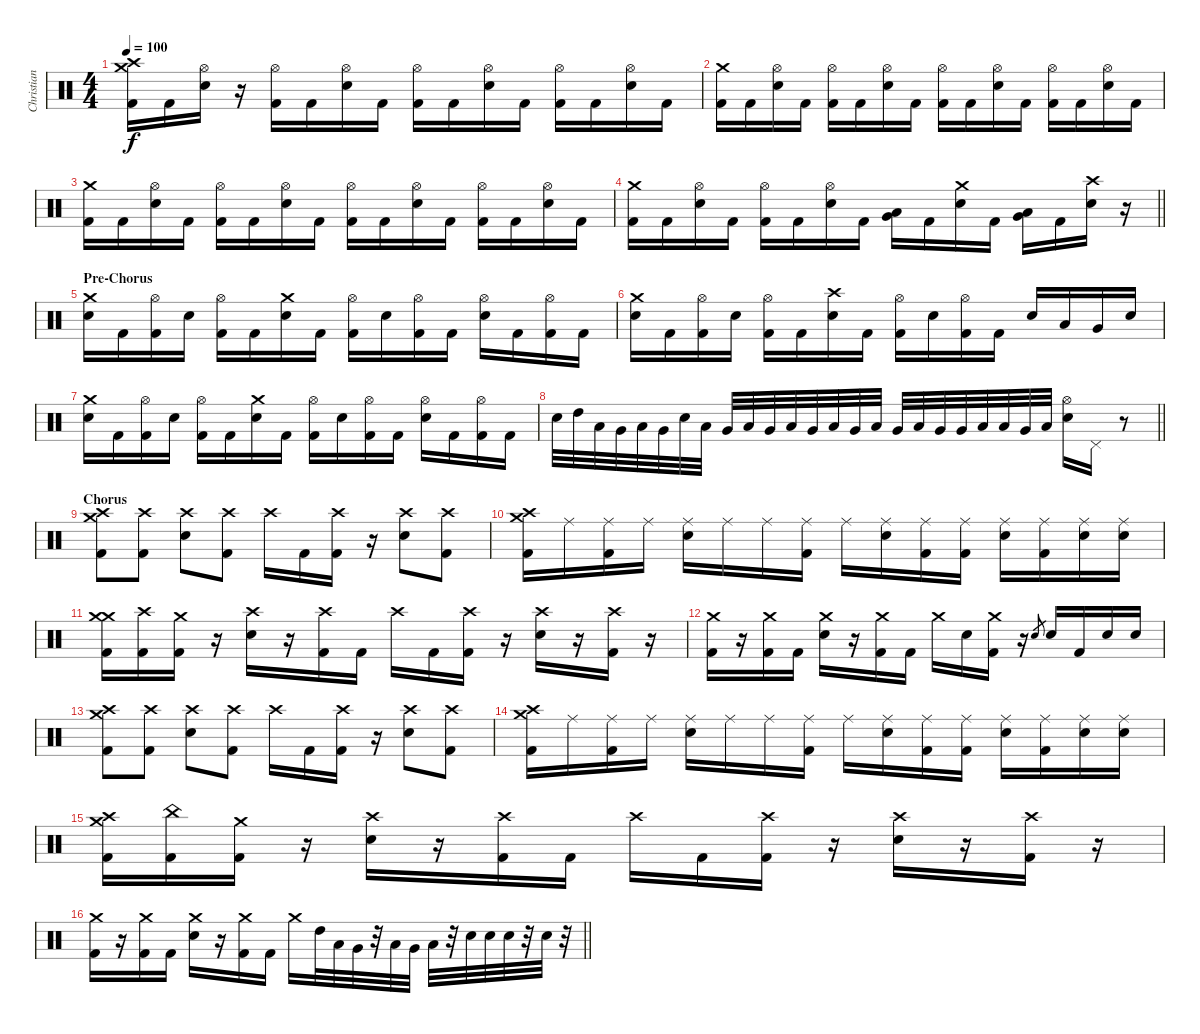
\track ("Christian 'CC' Coma" "Christian ") {instrument percussion}
\staff {score}
\articulation defaults
\ts (4 4)
\tempo 100
\clef neutral
\ks c
("Crash medium (hit)" "Crash high (hit)" "Kick (hit) 2").16{dy f} "Kick (hit) 2".16 ("Hi-Hat (open)" "Electric Snare (hit)").16 r.16 ("Hi-Hat (open)" "Kick (hit) 2").16 "Kick (hit) 2".16 ("Hi-Hat (open)" "Electric Snare (hit)").16 "Kick (hit) 2".16 ("Hi-Hat (open)" "Kick (hit) 2").16 "Kick (hit) 2".16 ("Hi-Hat (open)" "Electric Snare (hit)").16 "Kick (hit) 2".16 ("Hi-Hat (open)" "Kick (hit) 2").16 "Kick (hit) 2".16 ("Hi-Hat (open)" "Electric Snare (hit)").16 "Kick (hit) 2".16 |
("Crash medium (hit)" "Kick (hit) 2").16 "Kick (hit) 2".16 ("Hi-Hat (open)" "Electric Snare (hit)").16 "Kick (hit) 2".16 ("Hi-Hat (open)" "Kick (hit) 2").16 "Kick (hit) 2".16 ("Hi-Hat (open)" "Electric Snare (hit)").16 "Kick (hit) 2".16 ("Hi-Hat (open)" "Kick (hit) 2").16 "Kick (hit) 2".16 ("Hi-Hat (open)" "Electric Snare (hit)").16 "Kick (hit) 2".16 ("Hi-Hat (open)" "Kick (hit) 2").16 "Kick (hit) 2".16 ("Hi-Hat (open)" "Electric Snare (hit)").16 "Kick (hit) 2".16 |
("Crash medium (hit)" "Kick (hit) 2").16 "Kick (hit) 2".16 ("Hi-Hat (open)" "Electric Snare (hit)").16 "Kick (hit) 2".16 ("Hi-Hat (open)" "Kick (hit) 2").16 "Kick (hit) 2".16 ("Hi-Hat (open)" "Electric Snare (hit)").16 "Kick (hit) 2".16 ("Hi-Hat (open)" "Kick (hit) 2").16 "Kick (hit) 2".16 ("Hi-Hat (open)" "Electric Snare (hit)").16 "Kick (hit) 2".16 ("Hi-Hat (open)" "Kick (hit) 2").16 "Kick (hit) 2".16 ("Hi-Hat (open)" "Electric Snare (hit)").16 "Kick (hit) 2".16 |
\barLineRight lightlight
("Crash medium (hit)" "Kick (hit) 2").16 "Kick (hit) 2".16 ("Hi-Hat (open)" "Electric Snare (hit)").16 "Kick (hit) 2".16 ("Hi-Hat (open)" "Kick (hit) 2").16 "Kick (hit) 2".16 ("Hi-Hat (open)" "Electric Snare (hit)").16 "Kick (hit) 2".16 ("Low Floor Tom (hit)" "Very Low Tom (hit)").16 "Kick (hit) 2".16 ("Crash medium (hit)" "Electric Snare (hit)").16 "Kick (hit) 2".16 ("Low Floor Tom (hit)" "Very Low Tom (hit)").16 "Kick (hit) 2".16 ("Crash high (hit)" "Electric Snare (hit)").16 r.16 |
\section ("" "Pre-Chorus")
("Crash medium (hit)" "Electric Snare (hit)").16 "Kick (hit) 2".16 ("Hi-Hat (open)" "Kick (hit) 2").16 "Electric Snare (hit)".16 ("Hi-Hat (open)" "Kick (hit) 2").16 "Kick (hit) 2".16 ("Crash medium (hit)" "Electric Snare (hit)").16 "Kick (hit) 2".16 ("Hi-Hat (open)" "Kick (hit) 2").16 "Electric Snare (hit)".16 ("Hi-Hat (open)" "Kick (hit) 2").16 "Kick (hit) 2".16 ("Hi-Hat (open)" "Electric Snare (hit)").16 "Kick (hit) 2".16 ("Hi-Hat (open)" "Kick (hit) 2").16 "Kick (hit) 2".16 |
("Crash medium (hit)" "Electric Snare (hit)").16 "Kick (hit) 2".16 ("Hi-Hat (open)" "Kick (hit) 2").16 "Electric Snare (hit)".16 ("Hi-Hat (open)" "Kick (hit) 2").16 "Kick (hit) 2".16 ("Crash high (hit)" "Electric Snare (hit)").16 "Kick (hit) 2".16 ("Hi-Hat (open)" "Kick (hit) 2").16 "Electric Snare (hit)".16 ("Hi-Hat (open)" "Kick (hit) 2").16 "Kick (hit) 2".16 "Electric Snare (hit)".16 "Low Tom (hit)".16 "Very Low Tom (hit)".16 "Electric Snare (hit)".16 |
("Crash medium (hit)" "Electric Snare (hit)").16 "Kick (hit) 2".16 ("Hi-Hat (open)" "Kick (hit) 2").16 "Electric Snare (hit)".16 ("Hi-Hat (open)" "Kick (hit) 2").16 "Kick (hit) 2".16 ("Crash medium (hit)" "Electric Snare (hit)").16 "Kick (hit) 2".16 ("Hi-Hat (open)" "Kick (hit) 2").16 "Electric Snare (hit)".16 ("Hi-Hat (open)" "Kick (hit) 2").16 "Kick (hit) 2".16 ("Hi-Hat (open)" "Electric Snare (hit)").16 "Kick (hit) 2".16 ("Hi-Hat (open)" "Kick (hit) 2").16 "Kick (hit) 2".16 |
\barLineRight lightlight "Electric Snare (hit)".32 "High Tom (hit)".32 "Low Tom (hit)".32 "Very Low Tom (hit)".32 "Low Tom (hit)".32 "Very Low Tom (hit)".32 "Electric Snare (hit)".32 "Low Tom (hit)".32 "Very Low Tom (hit)".32 "Low Floor Tom (hit)".32 "Very Low Tom (hit)".32 "Low Tom (hit)".32 "Very Low Tom (hit)".32 "Low Tom (hit)".32 "Very Low Tom (hit)".32 "Low Tom (hit)".32 "Very Low Tom (hit)".32 "Low Floor Tom (hit)".32 "Very Low Tom (hit)".32 "Very Low Tom (hit)".32 "Low Floor Tom (hit)".32 "Low Floor Tom (hit)".32 "Very Low Tom (hit)".32 "Low Tom (hit)".32
("Hi-Hat (open)" "Electric Snare (hit)").16 "Pedal Hi-Hat (hit)".16 r.8 |
\section ("" "Chorus")
("Crash high (hit)" "Crash medium (hit)" "Kick (hit) 2").8 ("Crash high (hit)" "Kick (hit) 2").8 ("Crash high (hit)" "Electric Snare (hit)").8 ("Crash high (hit)" "Kick (hit) 2").8 "Crash high (hit)".16 "Kick (hit) 2".16 ("Crash high (hit)" "Kick (hit) 2").16 r.16 ("Crash high (hit)" "Electric Snare (hit)").8 ("Crash high (hit)" "Kick (hit) 2").8 |
("Crash medium (hit)" "Crash high (hit)" "Kick (hit) 2").16 "Ride (middle)".16 ("Ride (middle)" "Kick (hit) 2").16 "Ride (middle)".16 ("Ride (middle)" "Electric Snare (hit)").16 "Ride (middle)".16 "Ride (middle)".16 ("Ride (middle)" "Kick (hit) 2").16 "Ride (middle)".16 ("Ride (middle)" "Electric Snare (hit)").16 ("Ride (middle)" "Kick (hit) 2").16 ("Ride (middle)" "Kick (hit) 2").16 ("Ride (middle)" "Electric Snare (hit)").16 ("Ride (middle)" "Kick (hit) 2").16 ("Ride (middle)" "Electric Snare (hit)").16 ("Ride (middle)" "Electric Snare (hit)").16 |
("Crash medium (hit)" "Crash medium (hit)" "Kick (hit) 2").16 ("Crash high (hit)" "Kick (hit) 2").16 ("Crash medium (hit)" "Kick (hit) 2").16 r.16 ("Crash high (hit)" "Electric Snare (hit)").16 r.16 ("Crash high (hit)" "Kick (hit) 2").16 "Kick (hit) 2".16 "Crash high (hit)".16 "Kick (hit) 2".16 ("Crash high (hit)" "Kick (hit) 2").16 r.16 ("Crash high (hit)" "Electric Snare (hit)").16 r.16 ("Crash high (hit)" "Kick (hit) 2").16 r.16 |
("Crash medium (hit)" "Kick (hit) 2").16 r.16 ("Crash medium (hit)" "Kick (hit) 2").16 "Kick (hit) 2".16 ("Crash medium (hit)" "Electric Snare (hit)").16 r.16 ("Crash medium (hit)" "Kick (hit) 2").16 "Kick (hit) 2".16 "Crash medium (hit)".16 "Electric Snare (hit)".16 ("Crash medium (hit)" "Kick (hit) 2").16 r.16 "Electric Snare (hit)".8{gr} "Electric Snare (hit)".16 "Kick (hit) 2".16 "Electric Snare (hit)".16 "Electric Snare (hit)".16 |
("Crash high (hit)" "Crash medium (hit)" "Kick (hit) 2").8 ("Crash high (hit)" "Kick (hit) 2").8 ("Crash high (hit)" "Electric Snare (hit)").8 ("Crash high (hit)" "Kick (hit) 2").8 "Crash high (hit)".16 "Kick (hit) 2".16 ("Crash high (hit)" "Kick (hit) 2").16 r.16 ("Crash high (hit)" "Electric Snare (hit)").8 ("Crash high (hit)" "Kick (hit) 2").8 |
("Crash medium (hit)" "Crash high (hit)" "Kick (hit) 2").16 "Ride (middle)".16 ("Ride (middle)" "Kick (hit) 2").16 "Ride (middle)".16 ("Ride (middle)" "Electric Snare (hit)").16 "Ride (middle)".16 "Ride (middle)".16 ("Ride (middle)" "Kick (hit) 2").16 "Ride (middle)".16 ("Ride (middle)" "Electric Snare (hit)").16 ("Ride (middle)" "Kick (hit) 2").16 ("Ride (middle)" "Kick (hit) 2").16 ("Ride (middle)" "Electric Snare (hit)").16 ("Ride (middle)" "Kick (hit) 2").16 ("Ride (middle)" "Electric Snare (hit)").16 ("Ride (middle)" "Electric Snare (hit)").16 |
("Crash high (hit)" "Crash medium (hit)" "Kick (hit) 2").16 ("China (hit)" "Kick (hit) 2").16 ("Crash medium (hit)" "Kick (hit) 2").16 r.16 ("Crash high (hit)" "Electric Snare (hit)").16 r.16 ("Crash high (hit)" "Kick (hit) 2").16 "Kick (hit) 2".16 "Crash high (hit)".16 "Kick (hit) 2".16 ("Crash high (hit)" "Kick (hit) 2").16 r.16 ("Crash high (hit)" "Electric Snare (hit)").16 r.16 ("Crash high (hit)" "Kick (hit) 2").16 r.16 |
\barLineRight lightlight
("Crash medium (hit)" "Kick (hit) 2").16 r.16 ("Crash medium (hit)" "Kick (hit) 2").16 "Kick (hit) 2".16 ("Crash medium (hit)" "Electric Snare (hit)").16 r.16 ("Crash medium (hit)" "Kick (hit) 2").16 "Kick (hit) 2".16 "Crash medium (hit)".16 "High Tom (hit)".32 "Low Tom (hit)".32 "Very Low Tom (hit)".32 r.32 "Low Tom (hit)".32 "Very Low Tom (hit)".32 "Low Floor Tom (hit)".32 r.32 "Electric Snare (hit)".32 "Electric Snare (hit)".32 "Electric Snare (hit)".32 r.32 "Electric Snare (hit)".32 r.32
